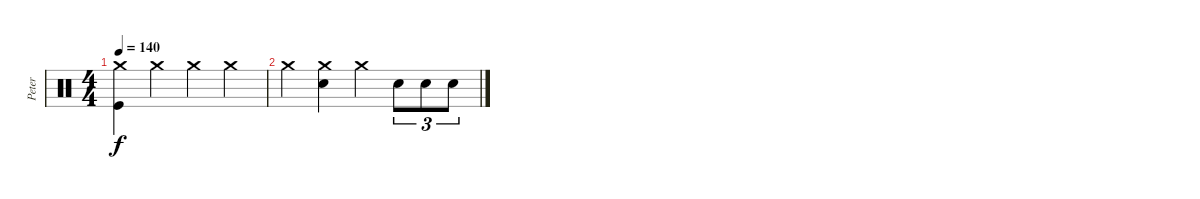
\track ("Peter" "Peter") {instrument percussion}
\staff {score}
\articulation defaults
\ts (4 4)
\tempo 140
\clef neutral
\ks c
("Crash medium (hit)" "Kick (hit)").4{dy f} "Crash medium (hit)".4 "Crash medium (hit)".4 "Crash medium (hit)".4 |
"Crash medium (hit)".4 ("Crash medium (hit)" "Electric Snare (hit)").4 "Crash medium (hit)".4 "Electric Snare (hit)".8{tu (3 2)} "Electric Snare (hit)".8{tu (3 2)} "Electric Snare (hit)".8{tu (3 2)}
